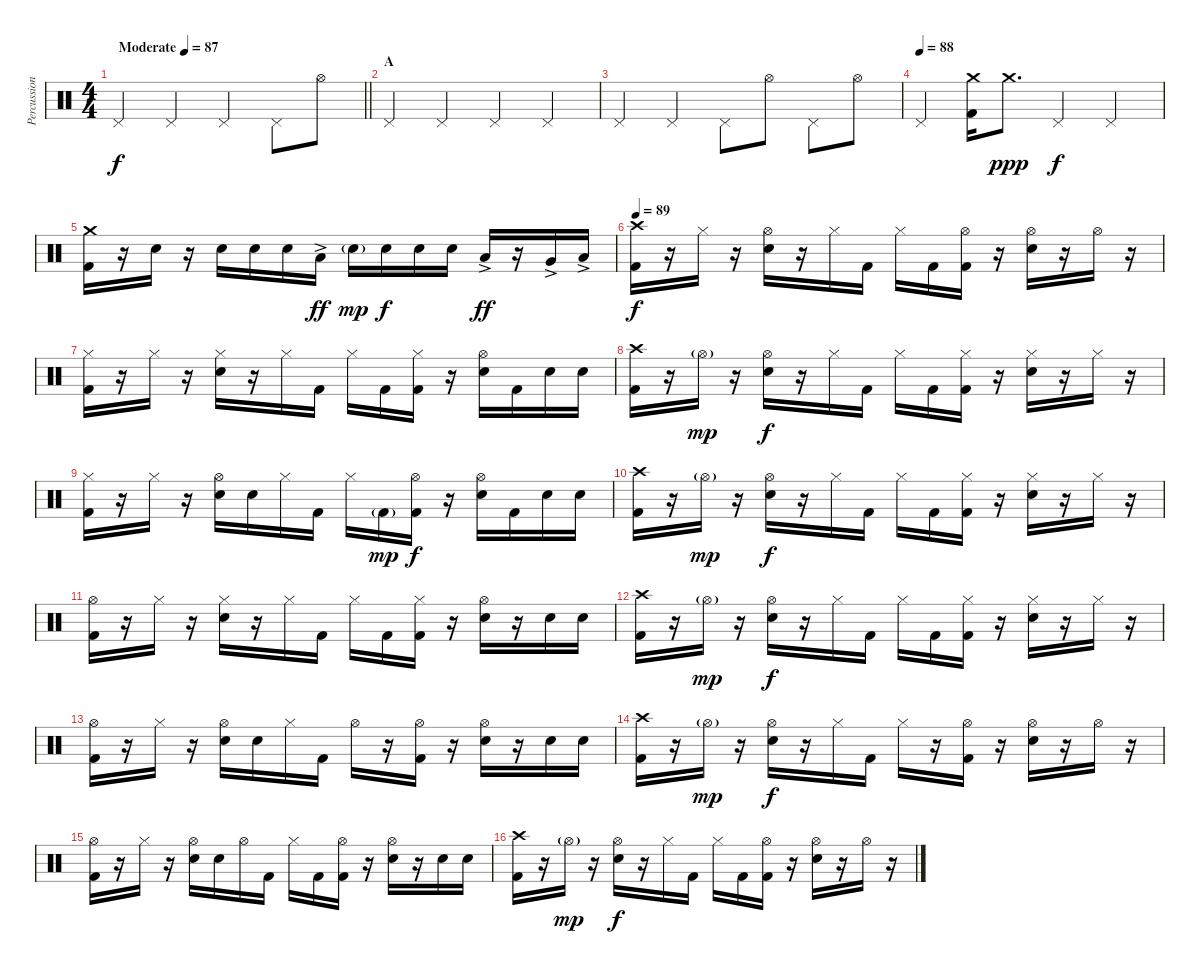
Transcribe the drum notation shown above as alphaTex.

\track ("Percussion" "Percussion") {instrument percussion}
\staff {score}
\articulation defaults
\ts (4 4)
\tempo (87 "Moderate")
\clef neutral
\barLineRight lightlight
\ks c "Pedal Hi-Hat (hit)".4{dy f} "Pedal Hi-Hat (hit)".4 "Pedal Hi-Hat (hit)".4 "Pedal Hi-Hat (hit)".8 "Hi-Hat (open)".8
|
\section ("" "A")
"Pedal Hi-Hat (hit)".4 "Pedal Hi-Hat (hit)".4 "Pedal Hi-Hat (hit)".4 "Pedal Hi-Hat (hit)".4 |
"Pedal Hi-Hat (hit)".4 "Pedal Hi-Hat (hit)".4 "Pedal Hi-Hat (hit)".8 "Hi-Hat (open)".8 "Pedal Hi-Hat (hit)".8 "Hi-Hat (open)".8 |
\tempo (88)
"Pedal Hi-Hat (hit)".4 ("Crash medium (hit)" "Kick (hit) 2").16 "Crash medium (hit)".8{d dy ppp} "Pedal Hi-Hat (hit)".4{dy f} "Pedal Hi-Hat (hit)".4 |
("Crash medium (hit)" "Kick (hit) 2").16 r.16 "Electric Snare (hit)".16 r.16 "Electric Snare (hit)".16 "Electric Snare (hit)".16 "Electric Snare (hit)".16 "Low Tom (hit)"{ac}.16{dy ff} "Electric Snare (hit)"{g}.16{dy mp} "Electric Snare (hit)".16{dy f} "Electric Snare (hit)".16 "Electric Snare (hit)".16 "Low Tom (hit)"{ac}.16{dy ff} r.16 "Very Low Tom (hit)"{ac}.16 "Low Floor Tom (hit)"{ac}.16 |
\tempo 89
("Crash high (hit)" "Kick (hit) 2").16{dy f} r.16 "Hi-Hat (closed)".16 r.16 ("Hi-Hat (open)" "Electric Snare (hit)").16 r.16 "Hi-Hat (closed)".16 "Kick (hit) 2".16 "Hi-Hat (closed)".16 "Kick (hit) 2".16 ("Hi-Hat (open)" "Kick (hit) 2").16 r.16 ("Hi-Hat (open)" "Electric Snare (hit)").16 r.16 "Hi-Hat (open)".16 r.16 |
("Hi-Hat (closed)" "Kick (hit) 2").16 r.16 "Hi-Hat (closed)".16 r.16 ("Hi-Hat (closed)" "Electric Snare (hit)").16 r.16 "Hi-Hat (closed)".16 "Kick (hit) 2".16 "Hi-Hat (closed)".16 "Kick (hit) 2".16 ("Hi-Hat (closed)" "Kick (hit) 2").16 r.16 ("Hi-Hat (open)" "Electric Snare (hit)").16 "Kick (hit) 2".16 "Electric Snare (hit)".16 "Electric Snare (hit)".16 |
("Crash high (hit)" "Kick (hit) 2").16 r.16 "Hi-Hat (open)"{g}.16{dy mp} r.16 ("Hi-Hat (open)" "Electric Snare (hit)").16{dy f} r.16 "Hi-Hat (closed)".16 "Kick (hit) 2".16 "Hi-Hat (closed)".16 "Kick (hit) 2".16 ("Hi-Hat (closed)" "Kick (hit) 2").16 r.16 ("Hi-Hat (closed)" "Electric Snare (hit)").16 r.16 "Hi-Hat (closed)".16 r.16 |
("Hi-Hat (closed)" "Kick (hit) 2").16 r.16 "Hi-Hat (closed)".16 r.16 ("Hi-Hat (open)" "Electric Snare (hit)").16 "Electric Snare (hit)".16 "Hi-Hat (closed)".16 "Kick (hit) 2".16 "Hi-Hat (closed)".16 "Kick (hit) 2"{g}.16{dy mp} ("Hi-Hat (open)" "Kick (hit) 2").16{dy f} r.16 ("Hi-Hat (open)" "Electric Snare (hit)").16 "Kick (hit) 2".16 "Electric Snare (hit)".16 "Electric Snare (hit)".16 |
("Crash high (hit)" "Kick (hit) 2").16 r.16 "Hi-Hat (open)"{g}.16{dy mp} r.16 ("Hi-Hat (open)" "Electric Snare (hit)").16{dy f} r.16 "Hi-Hat (closed)".16 "Kick (hit) 2".16 "Hi-Hat (closed)".16 "Kick (hit) 2".16 ("Hi-Hat (closed)" "Kick (hit) 2").16 r.16 ("Hi-Hat (closed)" "Electric Snare (hit)").16 r.16 "Hi-Hat (closed)".16 r.16 |
("Hi-Hat (open)" "Kick (hit) 2").16 r.16 "Hi-Hat (closed)".16 r.16 ("Hi-Hat (closed)" "Electric Snare (hit)").16 r.16 "Hi-Hat (closed)".16 "Kick (hit) 2".16 "Hi-Hat (closed)".16 "Kick (hit) 2".16 ("Hi-Hat (closed)" "Kick (hit) 2").16 r.16 ("Hi-Hat (open)" "Electric Snare (hit)").16 r.16 "Electric Snare (hit)".16 "Electric Snare (hit)".16 |
("Crash high (hit)" "Kick (hit) 2").16 r.16 "Hi-Hat (open)"{g}.16{dy mp} r.16 ("Hi-Hat (open)" "Electric Snare (hit)").16{dy f} r.16 "Hi-Hat (closed)".16 "Kick (hit) 2".16 "Hi-Hat (closed)".16 "Kick (hit) 2".16 ("Hi-Hat (closed)" "Kick (hit) 2").16 r.16 ("Hi-Hat (closed)" "Electric Snare (hit)").16 r.16 "Hi-Hat (closed)".16 r.16 |
("Hi-Hat (open)" "Kick (hit) 2").16 r.16 "Hi-Hat (closed)".16 r.16 ("Hi-Hat (open)" "Electric Snare (hit)").16 "Electric Snare (hit)".16 "Hi-Hat (closed)".16 "Kick (hit) 2".16 "Hi-Hat (open)".16 r.16 ("Hi-Hat (open)" "Kick (hit) 2").16 r.16 ("Hi-Hat (open)" "Electric Snare (hit)").16 r.16 "Electric Snare (hit)".16 "Electric Snare (hit)".16 |
("Crash high (hit)" "Kick (hit) 2").16 r.16 "Hi-Hat (open)"{g}.16{dy mp} r.16 ("Hi-Hat (open)" "Electric Snare (hit)").16{dy f} r.16 "Hi-Hat (closed)".16 "Kick (hit) 2".16 "Hi-Hat (closed)".16 r.16 ("Hi-Hat (open)" "Kick (hit) 2").16 r.16 ("Hi-Hat (open)" "Electric Snare (hit)").16 r.16 "Hi-Hat (open)".16 r.16 |
("Hi-Hat (open)" "Kick (hit) 2").16 r.16 "Hi-Hat (closed)".16 r.16 ("Hi-Hat (open)" "Electric Snare (hit)").16 "Electric Snare (hit)".16 "Hi-Hat (open)".16 "Kick (hit) 2".16 "Hi-Hat (closed)".16 "Kick (hit) 2".16 ("Hi-Hat (open)" "Kick (hit) 2").16 r.16 ("Hi-Hat (open)" "Electric Snare (hit)").16 r.16 "Electric Snare (hit)".16 "Electric Snare (hit)".16 |
("Crash high (hit)" "Kick (hit) 2").16 r.16 "Hi-Hat (open)"{g}.16{dy mp} r.16 ("Hi-Hat (open)" "Electric Snare (hit)").16{dy f} r.16 "Hi-Hat (closed)".16 "Kick (hit) 2".16 "Hi-Hat (closed)".16 "Kick (hit) 2".16 ("Hi-Hat (open)" "Kick (hit) 2").16 r.16 ("Hi-Hat (open)" "Electric Snare (hit)").16 r.16 "Hi-Hat (open)".16 r.16
